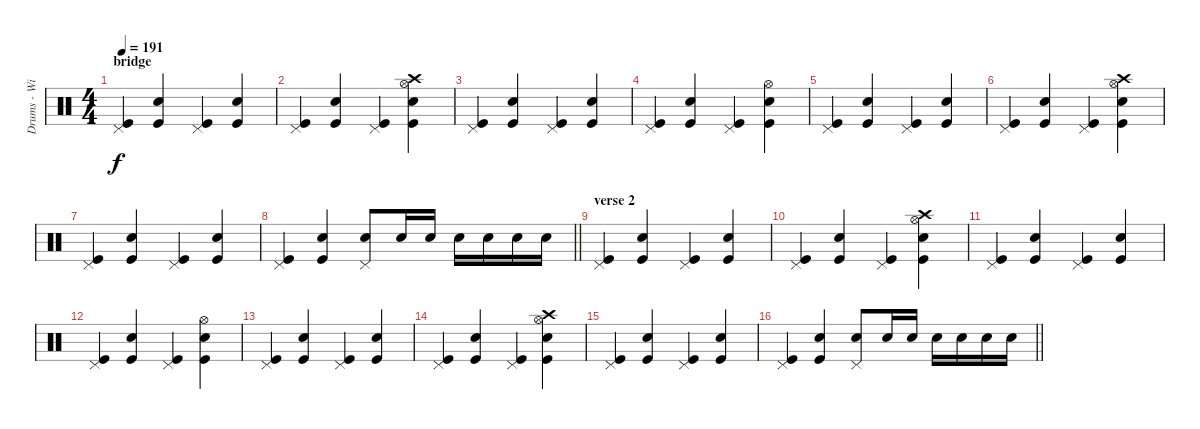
\track ("Drums - Willie Buchan" "Drums - Wi") {instrument percussion}
\staff {score}
\articulation defaults
\ts (4 4)
\section ("" "bridge")
\tempo 191
\clef neutral
\ks c
("Kick (hit)" "Pedal Hi-Hat (hit)").4{dy f} ("Kick (hit)" "Snare (hit) 2").4 ("Kick (hit)" "Pedal Hi-Hat (hit)").4 ("Kick (hit)" "Snare (hit) 2").4 |
("Kick (hit)" "Pedal Hi-Hat (hit)").4 ("Kick (hit)" "Snare (hit) 2").4 ("Kick (hit)" "Pedal Hi-Hat (hit)").4 ("Kick (hit)" "Snare (hit) 2" "Hi-Hat (open)" "Crash high (hit)").4 |
("Kick (hit)" "Pedal Hi-Hat (hit)").4 ("Kick (hit)" "Snare (hit) 2").4 ("Kick (hit)" "Pedal Hi-Hat (hit)").4 ("Kick (hit)" "Snare (hit) 2").4 |
("Kick (hit)" "Pedal Hi-Hat (hit)").4 ("Kick (hit)" "Snare (hit) 2").4 ("Kick (hit)" "Pedal Hi-Hat (hit)").4 ("Kick (hit)" "Snare (hit) 2" "Hi-Hat (open)").4 |
("Kick (hit)" "Pedal Hi-Hat (hit)").4 ("Kick (hit)" "Snare (hit) 2").4 ("Kick (hit)" "Pedal Hi-Hat (hit)").4 ("Kick (hit)" "Snare (hit) 2").4 |
("Kick (hit)" "Pedal Hi-Hat (hit)").4 ("Kick (hit)" "Snare (hit) 2").4 ("Kick (hit)" "Pedal Hi-Hat (hit)").4 ("Kick (hit)" "Snare (hit) 2" "Hi-Hat (open)" "Crash high (hit)").4 |
("Kick (hit)" "Pedal Hi-Hat (hit)").4 ("Kick (hit)" "Snare (hit) 2").4 ("Kick (hit)" "Pedal Hi-Hat (hit)").4 ("Kick (hit)" "Snare (hit) 2").4 |
\barLineRight lightlight
("Kick (hit)" "Pedal Hi-Hat (hit)").4 ("Kick (hit)" "Snare (hit) 2").4 ("Snare (hit) 2" "Pedal Hi-Hat (hit)").8 "Snare (hit) 2".16 "Snare (hit) 2".16 "Snare (hit) 2".16 "Snare (hit) 2".16 "Snare (hit) 2".16 "Snare (hit) 2".16 |
\section ("" "verse 2")
("Kick (hit)" "Pedal Hi-Hat (hit)").4 ("Kick (hit)" "Snare (hit) 2").4 ("Kick (hit)" "Pedal Hi-Hat (hit)").4 ("Kick (hit)" "Snare (hit) 2").4 |
("Kick (hit)" "Pedal Hi-Hat (hit)").4 ("Kick (hit)" "Snare (hit) 2").4 ("Kick (hit)" "Pedal Hi-Hat (hit)").4 ("Kick (hit)" "Snare (hit) 2" "Hi-Hat (open)" "Crash high (hit)").4 |
("Kick (hit)" "Pedal Hi-Hat (hit)").4 ("Kick (hit)" "Snare (hit) 2").4 ("Kick (hit)" "Pedal Hi-Hat (hit)").4 ("Kick (hit)" "Snare (hit) 2").4 |
("Kick (hit)" "Pedal Hi-Hat (hit)").4 ("Kick (hit)" "Snare (hit) 2").4 ("Kick (hit)" "Pedal Hi-Hat (hit)").4 ("Kick (hit)" "Snare (hit) 2" "Hi-Hat (open)").4 |
("Kick (hit)" "Pedal Hi-Hat (hit)").4 ("Kick (hit)" "Snare (hit) 2").4 ("Kick (hit)" "Pedal Hi-Hat (hit)").4 ("Kick (hit)" "Snare (hit) 2").4 |
("Kick (hit)" "Pedal Hi-Hat (hit)").4 ("Kick (hit)" "Snare (hit) 2").4 ("Kick (hit)" "Pedal Hi-Hat (hit)").4 ("Kick (hit)" "Snare (hit) 2" "Hi-Hat (open)" "Crash high (hit)").4 |
("Kick (hit)" "Pedal Hi-Hat (hit)").4 ("Kick (hit)" "Snare (hit) 2").4 ("Kick (hit)" "Pedal Hi-Hat (hit)").4 ("Kick (hit)" "Snare (hit) 2").4 |
\barLineRight lightlight
("Kick (hit)" "Pedal Hi-Hat (hit)").4 ("Kick (hit)" "Snare (hit) 2").4 ("Snare (hit) 2" "Pedal Hi-Hat (hit)").8 "Snare (hit) 2".16 "Snare (hit) 2".16 "Snare (hit) 2".16 "Snare (hit) 2".16 "Snare (hit) 2".16 "Snare (hit) 2".16
